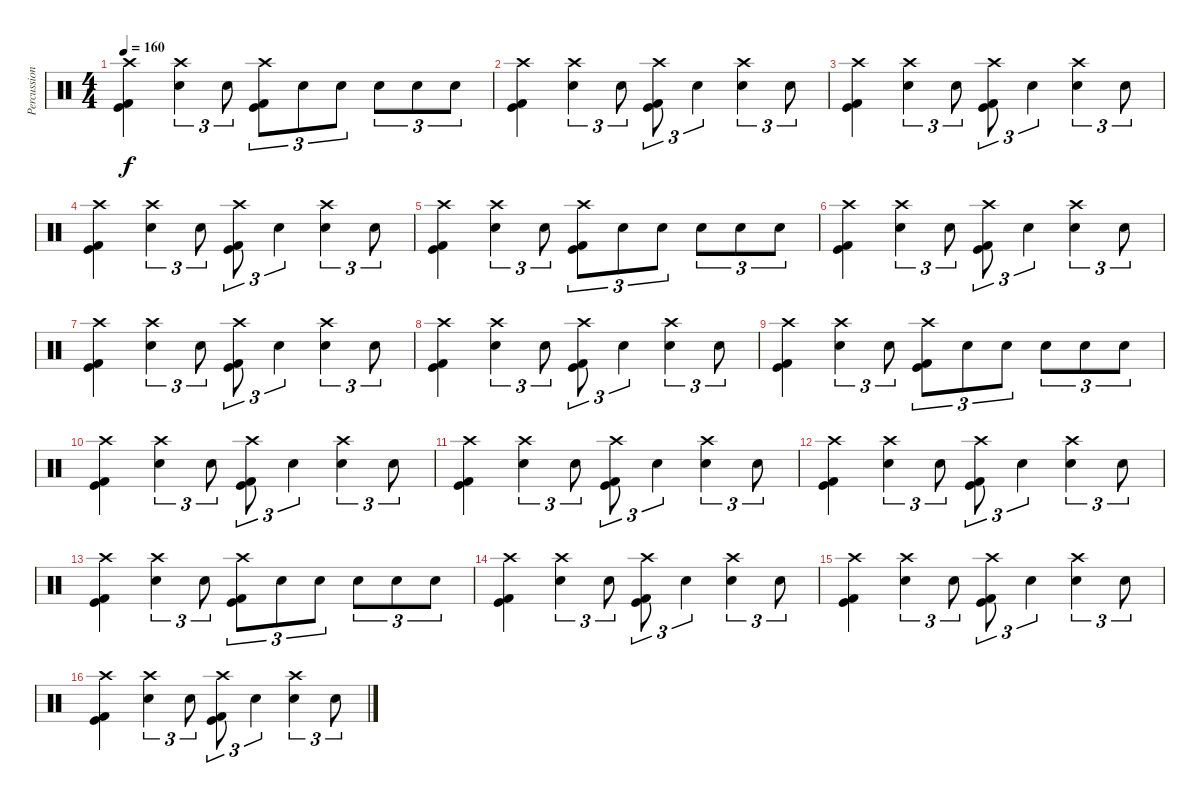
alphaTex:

\track ("Percussion" "Percussion") {instrument percussion}
\staff {score}
\articulation defaults
\ts (4 4)
\tempo 160
\clef neutral
\ks c
("Crash high (hit)" "Kick (hit)" "Kick (hit) 2").4{dy f} ("Crash high (hit)" "Electric Snare (hit)").4{tu (3 2)} "Electric Snare (hit)".8{tu (3 2)} ("Crash high (hit)" "Kick (hit)" "Kick (hit) 2").8{tu (3 2)} "Electric Snare (hit)".8{tu (3 2)} "Electric Snare (hit)".8{tu (3 2)} "Electric Snare (hit)".8{tu (3 2)} "Electric Snare (hit)".8{tu (3 2)} "Electric Snare (hit)".8{tu (3 2)} |
("Crash high (hit)" "Kick (hit)" "Kick (hit) 2").4 ("Crash high (hit)" "Electric Snare (hit)").4{tu (3 2)} "Electric Snare (hit)".8{tu (3 2)} ("Crash high (hit)" "Kick (hit)" "Kick (hit) 2").8{tu (3 2)} "Electric Snare (hit)".4{tu (3 2)} ("Crash high (hit)" "Electric Snare (hit)").4{tu (3 2)} "Electric Snare (hit)".8{tu (3 2)} |
("Crash high (hit)" "Kick (hit)" "Kick (hit) 2").4 ("Crash high (hit)" "Electric Snare (hit)").4{tu (3 2)} "Electric Snare (hit)".8{tu (3 2)} ("Crash high (hit)" "Kick (hit)" "Kick (hit) 2").8{tu (3 2)} "Electric Snare (hit)".4{tu (3 2)} ("Crash high (hit)" "Electric Snare (hit)").4{tu (3 2)} "Electric Snare (hit)".8{tu (3 2)} |
("Crash high (hit)" "Kick (hit)" "Kick (hit) 2").4 ("Crash high (hit)" "Electric Snare (hit)").4{tu (3 2)} "Electric Snare (hit)".8{tu (3 2)} ("Crash high (hit)" "Kick (hit)" "Kick (hit) 2").8{tu (3 2)} "Electric Snare (hit)".4{tu (3 2)} ("Crash high (hit)" "Electric Snare (hit)").4{tu (3 2)} "Electric Snare (hit)".8{tu (3 2)} |
("Crash high (hit)" "Kick (hit)" "Kick (hit) 2").4 ("Crash high (hit)" "Electric Snare (hit)").4{tu (3 2)} "Electric Snare (hit)".8{tu (3 2)} ("Crash high (hit)" "Kick (hit)" "Kick (hit) 2").8{tu (3 2)} "Electric Snare (hit)".8{tu (3 2)} "Electric Snare (hit)".8{tu (3 2)} "Electric Snare (hit)".8{tu (3 2)} "Electric Snare (hit)".8{tu (3 2)} "Electric Snare (hit)".8{tu (3 2)} |
("Crash high (hit)" "Kick (hit)" "Kick (hit) 2").4 ("Crash high (hit)" "Electric Snare (hit)").4{tu (3 2)} "Electric Snare (hit)".8{tu (3 2)} ("Crash high (hit)" "Kick (hit)" "Kick (hit) 2").8{tu (3 2)} "Electric Snare (hit)".4{tu (3 2)} ("Crash high (hit)" "Electric Snare (hit)").4{tu (3 2)} "Electric Snare (hit)".8{tu (3 2)} |
("Crash high (hit)" "Kick (hit)" "Kick (hit) 2").4 ("Crash high (hit)" "Electric Snare (hit)").4{tu (3 2)} "Electric Snare (hit)".8{tu (3 2)} ("Crash high (hit)" "Kick (hit)" "Kick (hit) 2").8{tu (3 2)} "Electric Snare (hit)".4{tu (3 2)} ("Crash high (hit)" "Electric Snare (hit)").4{tu (3 2)} "Electric Snare (hit)".8{tu (3 2)} |
("Crash high (hit)" "Kick (hit)" "Kick (hit) 2").4 ("Crash high (hit)" "Electric Snare (hit)").4{tu (3 2)} "Electric Snare (hit)".8{tu (3 2)} ("Crash high (hit)" "Kick (hit)" "Kick (hit) 2").8{tu (3 2)} "Electric Snare (hit)".4{tu (3 2)} ("Crash high (hit)" "Electric Snare (hit)").4{tu (3 2)} "Electric Snare (hit)".8{tu (3 2)} |
("Crash high (hit)" "Kick (hit)" "Kick (hit) 2").4 ("Crash high (hit)" "Electric Snare (hit)").4{tu (3 2)} "Electric Snare (hit)".8{tu (3 2)} ("Crash high (hit)" "Kick (hit)" "Kick (hit) 2").8{tu (3 2)} "Electric Snare (hit)".8{tu (3 2)} "Electric Snare (hit)".8{tu (3 2)} "Electric Snare (hit)".8{tu (3 2)} "Electric Snare (hit)".8{tu (3 2)} "Electric Snare (hit)".8{tu (3 2)} |
("Crash high (hit)" "Kick (hit)" "Kick (hit) 2").4 ("Crash high (hit)" "Electric Snare (hit)").4{tu (3 2)} "Electric Snare (hit)".8{tu (3 2)} ("Crash high (hit)" "Kick (hit)" "Kick (hit) 2").8{tu (3 2)} "Electric Snare (hit)".4{tu (3 2)} ("Crash high (hit)" "Electric Snare (hit)").4{tu (3 2)} "Electric Snare (hit)".8{tu (3 2)} |
("Crash high (hit)" "Kick (hit)" "Kick (hit) 2").4 ("Crash high (hit)" "Electric Snare (hit)").4{tu (3 2)} "Electric Snare (hit)".8{tu (3 2)} ("Crash high (hit)" "Kick (hit)" "Kick (hit) 2").8{tu (3 2)} "Electric Snare (hit)".4{tu (3 2)} ("Crash high (hit)" "Electric Snare (hit)").4{tu (3 2)} "Electric Snare (hit)".8{tu (3 2)} |
("Crash high (hit)" "Kick (hit)" "Kick (hit) 2").4 ("Crash high (hit)" "Electric Snare (hit)").4{tu (3 2)} "Electric Snare (hit)".8{tu (3 2)} ("Crash high (hit)" "Kick (hit)" "Kick (hit) 2").8{tu (3 2)} "Electric Snare (hit)".4{tu (3 2)} ("Crash high (hit)" "Electric Snare (hit)").4{tu (3 2)} "Electric Snare (hit)".8{tu (3 2)} |
("Crash high (hit)" "Kick (hit)" "Kick (hit) 2").4 ("Crash high (hit)" "Electric Snare (hit)").4{tu (3 2)} "Electric Snare (hit)".8{tu (3 2)} ("Crash high (hit)" "Kick (hit)" "Kick (hit) 2").8{tu (3 2)} "Electric Snare (hit)".8{tu (3 2)} "Electric Snare (hit)".8{tu (3 2)} "Electric Snare (hit)".8{tu (3 2)} "Electric Snare (hit)".8{tu (3 2)} "Electric Snare (hit)".8{tu (3 2)} |
("Crash high (hit)" "Kick (hit)" "Kick (hit) 2").4 ("Crash high (hit)" "Electric Snare (hit)").4{tu (3 2)} "Electric Snare (hit)".8{tu (3 2)} ("Crash high (hit)" "Kick (hit)" "Kick (hit) 2").8{tu (3 2)} "Electric Snare (hit)".4{tu (3 2)} ("Crash high (hit)" "Electric Snare (hit)").4{tu (3 2)} "Electric Snare (hit)".8{tu (3 2)} |
("Crash high (hit)" "Kick (hit)" "Kick (hit) 2").4 ("Crash high (hit)" "Electric Snare (hit)").4{tu (3 2)} "Electric Snare (hit)".8{tu (3 2)} ("Crash high (hit)" "Kick (hit)" "Kick (hit) 2").8{tu (3 2)} "Electric Snare (hit)".4{tu (3 2)} ("Crash high (hit)" "Electric Snare (hit)").4{tu (3 2)} "Electric Snare (hit)".8{tu (3 2)} |
("Crash high (hit)" "Kick (hit)" "Kick (hit) 2").4 ("Crash high (hit)" "Electric Snare (hit)").4{tu (3 2)} "Electric Snare (hit)".8{tu (3 2)} ("Crash high (hit)" "Kick (hit)" "Kick (hit) 2").8{tu (3 2)} "Electric Snare (hit)".4{tu (3 2)} ("Crash high (hit)" "Electric Snare (hit)").4{tu (3 2)} "Electric Snare (hit)".8{tu (3 2)}
